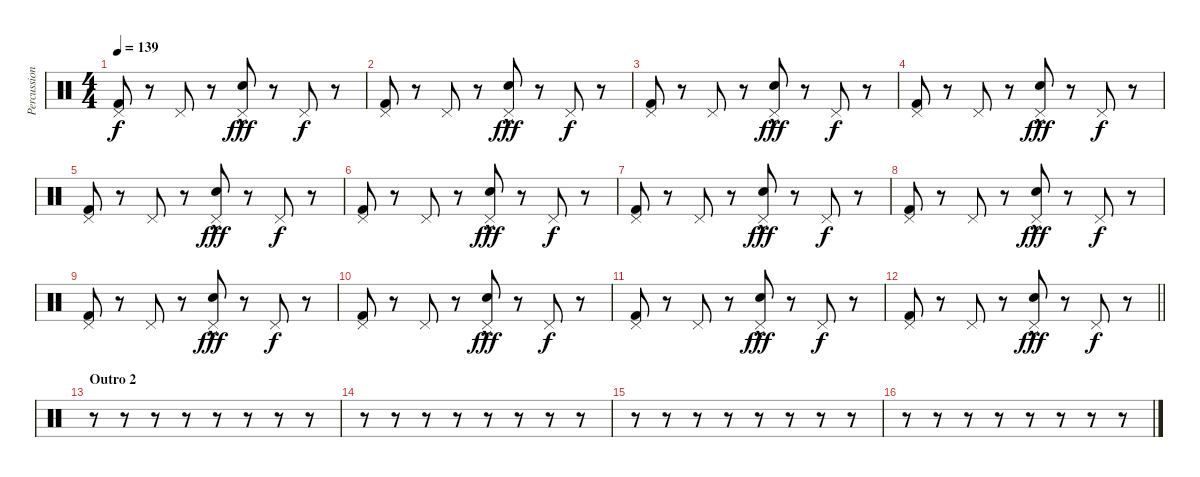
\track ("Percussion" "Percussion") {instrument percussion}
\staff {score}
\articulation defaults
\ts (4 4)
\tempo 139
\clef neutral
\ks c
("Kick (hit) 2" "Pedal Hi-Hat (hit)").8{dy f} r.8 "Pedal Hi-Hat (hit)".8 r.8 ("Electric Snare (hit)"{hac} "Pedal Hi-Hat (hit)").8{dy fff} r.8 "Pedal Hi-Hat (hit)".8{dy f} r.8 |
("Kick (hit) 2" "Pedal Hi-Hat (hit)").8 r.8 "Pedal Hi-Hat (hit)".8 r.8 ("Electric Snare (hit)"{hac} "Pedal Hi-Hat (hit)").8{dy fff} r.8 "Pedal Hi-Hat (hit)".8{dy f} r.8 |
("Kick (hit) 2" "Pedal Hi-Hat (hit)").8 r.8 "Pedal Hi-Hat (hit)".8 r.8 ("Electric Snare (hit)"{hac} "Pedal Hi-Hat (hit)").8{dy fff} r.8 "Pedal Hi-Hat (hit)".8{dy f} r.8 |
("Kick (hit) 2" "Pedal Hi-Hat (hit)").8 r.8 "Pedal Hi-Hat (hit)".8 r.8 ("Electric Snare (hit)"{hac} "Pedal Hi-Hat (hit)").8{dy fff} r.8 "Pedal Hi-Hat (hit)".8{dy f} r.8 |
("Kick (hit) 2" "Pedal Hi-Hat (hit)").8 r.8 "Pedal Hi-Hat (hit)".8 r.8 ("Electric Snare (hit)"{hac} "Pedal Hi-Hat (hit)").8{dy fff} r.8 "Pedal Hi-Hat (hit)".8{dy f} r.8 |
("Kick (hit) 2" "Pedal Hi-Hat (hit)").8 r.8 "Pedal Hi-Hat (hit)".8 r.8 ("Electric Snare (hit)"{hac} "Pedal Hi-Hat (hit)").8{dy fff} r.8 "Pedal Hi-Hat (hit)".8{dy f} r.8 |
("Kick (hit) 2" "Pedal Hi-Hat (hit)").8 r.8 "Pedal Hi-Hat (hit)".8 r.8 ("Electric Snare (hit)"{hac} "Pedal Hi-Hat (hit)").8{dy fff} r.8 "Pedal Hi-Hat (hit)".8{dy f} r.8 |
("Kick (hit) 2" "Pedal Hi-Hat (hit)").8 r.8 "Pedal Hi-Hat (hit)".8 r.8 ("Electric Snare (hit)"{hac} "Pedal Hi-Hat (hit)").8{dy fff} r.8 "Pedal Hi-Hat (hit)".8{dy f} r.8 |
("Kick (hit) 2" "Pedal Hi-Hat (hit)").8 r.8 "Pedal Hi-Hat (hit)".8 r.8 ("Electric Snare (hit)"{hac} "Pedal Hi-Hat (hit)").8{dy fff} r.8 "Pedal Hi-Hat (hit)".8{dy f} r.8 |
("Kick (hit) 2" "Pedal Hi-Hat (hit)").8 r.8 "Pedal Hi-Hat (hit)".8 r.8 ("Electric Snare (hit)"{hac} "Pedal Hi-Hat (hit)").8{dy fff} r.8 "Pedal Hi-Hat (hit)".8{dy f} r.8 |
("Kick (hit) 2" "Pedal Hi-Hat (hit)").8 r.8 "Pedal Hi-Hat (hit)".8 r.8 ("Electric Snare (hit)"{hac} "Pedal Hi-Hat (hit)").8{dy fff} r.8 "Pedal Hi-Hat (hit)".8{dy f} r.8 |
\barLineRight lightlight
("Kick (hit) 2" "Pedal Hi-Hat (hit)").8 r.8 "Pedal Hi-Hat (hit)".8 r.8 ("Electric Snare (hit)"{hac} "Pedal Hi-Hat (hit)").8{dy fff} r.8 "Pedal Hi-Hat (hit)".8{dy f} r.8 |
\section ("" "Outro 2")
r.8 r.8 r.8 r.8 r.8 r.8 r.8 r.8 |
r.8 r.8 r.8 r.8 r.8 r.8 r.8 r.8 |
r.8 r.8 r.8 r.8 r.8 r.8 r.8 r.8 |
r.8 r.8 r.8 r.8 r.8 r.8 r.8 r.8
